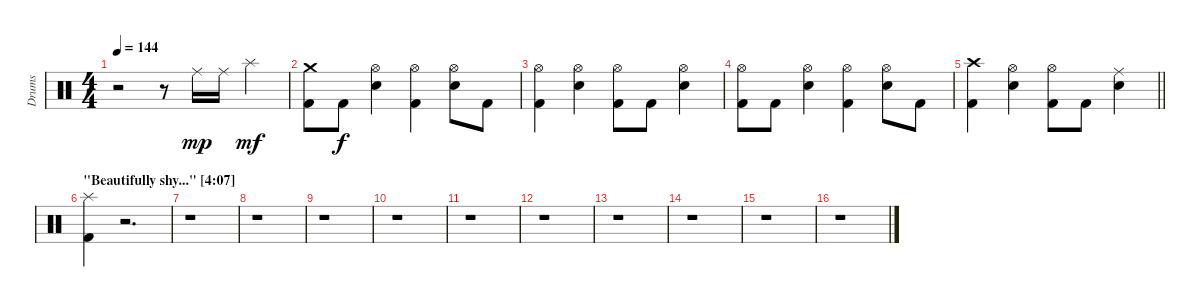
\track ("Drums" "Drums") {instrument percussion}
\staff {score}
\articulation defaults
\ts (4 4)
\tempo 144
\clef neutral
\ks c
r.2{dy f} r.8 "Ride (middle)".16{dy mp} "Ride (middle)".16 "Splash (hit)".4{dy mf} |
("Crash medium (hit)" "Kick (hit) 2").8 "Kick (hit) 2".8{dy f} ("Hi-Hat (open)" "Snare (hit) 2").4 ("Hi-Hat (open)" "Kick (hit) 2").4 ("Hi-Hat (open)" "Snare (hit) 2").8 "Kick (hit) 2".8 |
("Hi-Hat (open)" "Kick (hit) 2").4 ("Hi-Hat (open)" "Snare (hit) 2").4 ("Hi-Hat (open)" "Kick (hit) 2").8 "Kick (hit) 2".8 ("Hi-Hat (open)" "Snare (hit) 2").4 |
("Hi-Hat (open)" "Kick (hit) 2").8 "Kick (hit) 2".8 ("Hi-Hat (open)" "Snare (hit) 2").4 ("Hi-Hat (open)" "Kick (hit) 2").4 ("Hi-Hat (open)" "Snare (hit) 2").8 "Kick (hit) 2".8 |
\barLineRight lightlight
("Crash high (hit)" "Kick (hit) 2").4 ("Hi-Hat (open)" "Snare (hit) 2").4 ("Hi-Hat (open)" "Kick (hit) 2").8 "Kick (hit) 2".8 ("Ride (middle)" "Snare (hit) 2").4 |
\section ("" "\"Beautifully shy...\" [4:07]")
("Splash (hit)" "Kick (hit) 2").4 r.2{d} |
r.1 |
r.1 |
r.1 |
r.1 |
r.1 |
r.1 |
r.1 |
r.1 |
r.1 |
r.1
